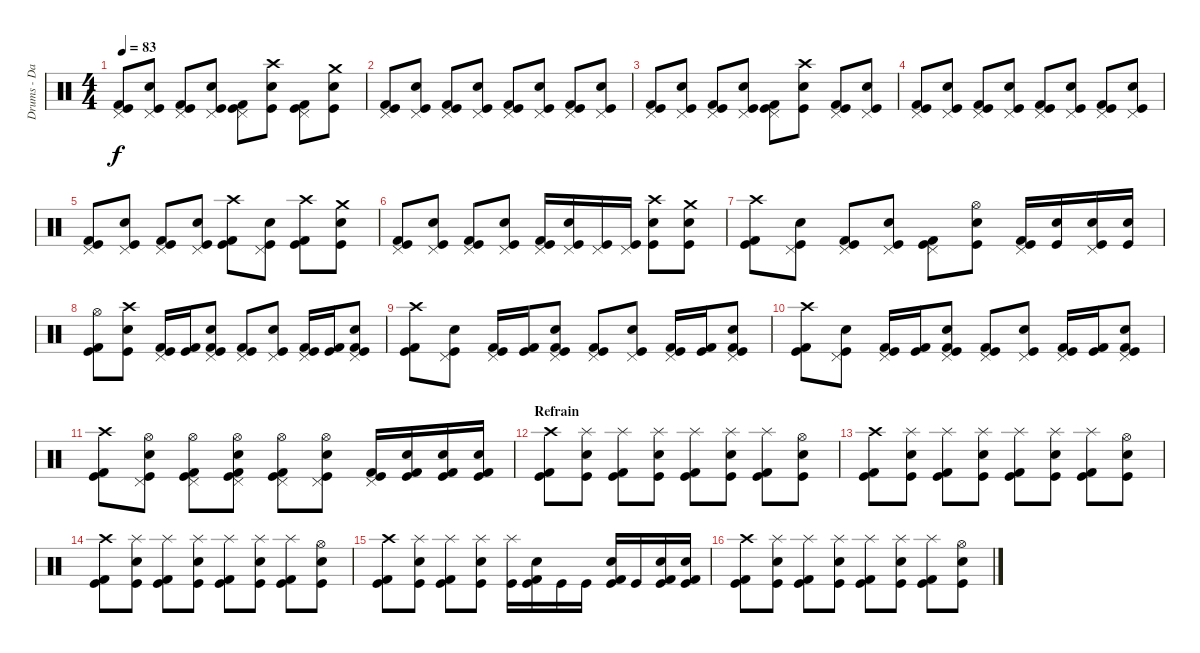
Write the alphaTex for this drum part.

\track ("Drums - Daniel Zimmermann" "Drums - Da") {instrument percussion}
\staff {score}
\articulation defaults
\ts (4 4)
\tempo 83
\clef neutral
\ks c
("Kick (hit)" "Kick (hit) 2" "Pedal Hi-Hat (hit)").8{dy f} ("Kick (hit)" "Electric Snare (hit)" "Pedal Hi-Hat (hit)").8 ("Kick (hit)" "Kick (hit) 2" "Pedal Hi-Hat (hit)").8 ("Kick (hit)" "Electric Snare (hit)" "Pedal Hi-Hat (hit)").8 ("Kick (hit)" "Kick (hit) 2" "Pedal Hi-Hat (hit)").8 ("Kick (hit)" "Electric Snare (hit)" "Crash high (hit)").8 ("Kick (hit)" "Kick (hit) 2" "Pedal Hi-Hat (hit)").8 ("Kick (hit)" "Electric Snare (hit)" "Crash medium (hit)").8 |
("Kick (hit)" "Kick (hit) 2" "Pedal Hi-Hat (hit)").8 ("Kick (hit)" "Electric Snare (hit)" "Pedal Hi-Hat (hit)").8 ("Kick (hit)" "Kick (hit) 2" "Pedal Hi-Hat (hit)").8 ("Kick (hit)" "Electric Snare (hit)" "Pedal Hi-Hat (hit)").8 ("Kick (hit)" "Kick (hit) 2" "Pedal Hi-Hat (hit)").8 ("Kick (hit)" "Electric Snare (hit)" "Pedal Hi-Hat (hit)").8 ("Kick (hit)" "Kick (hit) 2" "Pedal Hi-Hat (hit)").8 ("Kick (hit)" "Electric Snare (hit)" "Pedal Hi-Hat (hit)").8 |
("Kick (hit)" "Kick (hit) 2" "Pedal Hi-Hat (hit)").8 ("Kick (hit)" "Electric Snare (hit)" "Pedal Hi-Hat (hit)").8 ("Kick (hit)" "Kick (hit) 2" "Pedal Hi-Hat (hit)").8 ("Kick (hit)" "Electric Snare (hit)" "Pedal Hi-Hat (hit)").8 ("Kick (hit)" "Kick (hit) 2" "Pedal Hi-Hat (hit)").8 ("Kick (hit)" "Electric Snare (hit)" "Crash high (hit)").8 ("Kick (hit)" "Kick (hit) 2" "Pedal Hi-Hat (hit)").8 ("Kick (hit)" "Electric Snare (hit)" "Pedal Hi-Hat (hit)").8 |
("Kick (hit)" "Kick (hit) 2" "Pedal Hi-Hat (hit)").8 ("Kick (hit)" "Electric Snare (hit)" "Pedal Hi-Hat (hit)").8 ("Kick (hit)" "Kick (hit) 2" "Pedal Hi-Hat (hit)").8 ("Kick (hit)" "Electric Snare (hit)" "Pedal Hi-Hat (hit)").8 ("Kick (hit)" "Kick (hit) 2" "Pedal Hi-Hat (hit)").8 ("Kick (hit)" "Electric Snare (hit)" "Pedal Hi-Hat (hit)").8 ("Kick (hit)" "Kick (hit) 2" "Pedal Hi-Hat (hit)").8 ("Kick (hit)" "Electric Snare (hit)" "Pedal Hi-Hat (hit)").8 |
("Kick (hit)" "Kick (hit) 2" "Pedal Hi-Hat (hit)").8 ("Kick (hit)" "Electric Snare (hit)" "Pedal Hi-Hat (hit)").8 ("Kick (hit)" "Kick (hit) 2" "Pedal Hi-Hat (hit)").8 ("Kick (hit)" "Electric Snare (hit)" "Pedal Hi-Hat (hit)").8 ("Kick (hit)" "Kick (hit) 2" "Crash high (hit)").8 ("Kick (hit)" "Electric Snare (hit)" "Pedal Hi-Hat (hit)").8 ("Kick (hit)" "Kick (hit) 2" "Crash high (hit)").8 ("Kick (hit)" "Electric Snare (hit)" "Crash medium (hit)").8 |
("Kick (hit)" "Kick (hit) 2" "Pedal Hi-Hat (hit)").8 ("Kick (hit)" "Electric Snare (hit)" "Pedal Hi-Hat (hit)").8 ("Kick (hit)" "Kick (hit) 2" "Pedal Hi-Hat (hit)").8 ("Kick (hit)" "Electric Snare (hit)" "Pedal Hi-Hat (hit)").8 ("Kick (hit)" "Kick (hit) 2" "Pedal Hi-Hat (hit)").16 ("Kick (hit)" "Electric Snare (hit)" "Pedal Hi-Hat (hit)").16 ("Kick (hit)" "Pedal Hi-Hat (hit)").16 ("Kick (hit)" "Pedal Hi-Hat (hit)").16 ("Kick (hit)" "Electric Snare (hit)" "Crash high (hit)").8 ("Kick (hit)" "Electric Snare (hit)" "Crash medium (hit)").8 |
("Kick (hit)" "Kick (hit) 2" "Crash high (hit)").8 ("Kick (hit)" "Electric Snare (hit)" "Pedal Hi-Hat (hit)").8 ("Kick (hit)" "Kick (hit) 2" "Pedal Hi-Hat (hit)").8 ("Kick (hit)" "Electric Snare (hit)" "Pedal Hi-Hat (hit)").8 ("Kick (hit)" "Kick (hit) 2" "Pedal Hi-Hat (hit)").8 ("Kick (hit)" "Electric Snare (hit)" "Hi-Hat (open)").8 ("Kick (hit)" "Kick (hit) 2" "Pedal Hi-Hat (hit)").16 ("Kick (hit)" "Electric Snare (hit)").16 ("Kick (hit)" "Electric Snare (hit)" "Pedal Hi-Hat (hit)").16 ("Kick (hit)" "Electric Snare (hit)").16 |
("Kick (hit)" "Kick (hit) 2" "Hi-Hat (open)").8 ("Kick (hit)" "Electric Snare (hit)" "Crash high (hit)").8 ("Kick (hit)" "Kick (hit) 2" "Pedal Hi-Hat (hit)").16 ("Kick (hit)" "Kick (hit) 2").16 ("Kick (hit)" "Kick (hit) 2" "Electric Snare (hit)" "Pedal Hi-Hat (hit)").8 ("Kick (hit)" "Kick (hit) 2" "Pedal Hi-Hat (hit)").8 ("Kick (hit)" "Electric Snare (hit)" "Pedal Hi-Hat (hit)").8 ("Kick (hit)" "Kick (hit) 2" "Pedal Hi-Hat (hit)").16 ("Kick (hit)" "Kick (hit) 2").16 ("Kick (hit)" "Kick (hit) 2" "Electric Snare (hit)" "Pedal Hi-Hat (hit)").8 |
("Kick (hit)" "Kick (hit) 2" "Crash high (hit)").8 ("Kick (hit)" "Electric Snare (hit)" "Pedal Hi-Hat (hit)").8 ("Kick (hit)" "Kick (hit) 2" "Pedal Hi-Hat (hit)").16 ("Kick (hit)" "Kick (hit) 2").16 ("Kick (hit)" "Kick (hit) 2" "Electric Snare (hit)" "Pedal Hi-Hat (hit)").8 ("Kick (hit)" "Kick (hit) 2" "Pedal Hi-Hat (hit)").8 ("Kick (hit)" "Electric Snare (hit)" "Pedal Hi-Hat (hit)").8 ("Kick (hit)" "Kick (hit) 2" "Pedal Hi-Hat (hit)").16 ("Kick (hit)" "Kick (hit) 2").16 ("Kick (hit)" "Kick (hit) 2" "Electric Snare (hit)" "Pedal Hi-Hat (hit)").8 |
("Kick (hit)" "Kick (hit) 2" "Crash high (hit)").8 ("Kick (hit)" "Electric Snare (hit)" "Pedal Hi-Hat (hit)").8 ("Kick (hit)" "Kick (hit) 2" "Pedal Hi-Hat (hit)").16 ("Kick (hit)" "Kick (hit) 2").16 ("Kick (hit)" "Kick (hit) 2" "Electric Snare (hit)" "Pedal Hi-Hat (hit)").8 ("Kick (hit)" "Kick (hit) 2" "Pedal Hi-Hat (hit)").8 ("Kick (hit)" "Electric Snare (hit)" "Pedal Hi-Hat (hit)").8 ("Kick (hit)" "Kick (hit) 2" "Pedal Hi-Hat (hit)").16 ("Kick (hit)" "Kick (hit) 2").16 ("Kick (hit)" "Kick (hit) 2" "Electric Snare (hit)" "Pedal Hi-Hat (hit)").8 |
("Kick (hit)" "Kick (hit) 2" "Crash high (hit)").8 ("Kick (hit)" "Electric Snare (hit)" "Pedal Hi-Hat (hit)" "Hi-Hat (open)").8 ("Kick (hit)" "Kick (hit) 2" "Pedal Hi-Hat (hit)" "Hi-Hat (open)").8 ("Kick (hit)" "Kick (hit) 2" "Electric Snare (hit)" "Pedal Hi-Hat (hit)" "Hi-Hat (open)").8 ("Kick (hit)" "Kick (hit) 2" "Pedal Hi-Hat (hit)" "Hi-Hat (open)").8 ("Kick (hit)" "Electric Snare (hit)" "Pedal Hi-Hat (hit)" "Hi-Hat (open)").8 ("Kick (hit)" "Kick (hit) 2" "Pedal Hi-Hat (hit)").16 ("Kick (hit)" "Kick (hit) 2" "Electric Snare (hit)").16 ("Kick (hit)" "Kick (hit) 2" "Electric Snare (hit)").16 ("Kick (hit)" "Kick (hit) 2" "Electric Snare (hit)").16 |
\section ("" "Refrain")
("Kick (hit)" "Kick (hit) 2" "Crash high (hit)").8 ("Kick (hit)" "Electric Snare (hit)" "Splash (hit)").8 ("Kick (hit)" "Kick (hit) 2" "Splash (hit)").8 ("Kick (hit)" "Electric Snare (hit)" "Splash (hit)").8 ("Kick (hit)" "Kick (hit) 2" "Splash (hit)").8 ("Kick (hit)" "Electric Snare (hit)" "Splash (hit)").8 ("Kick (hit)" "Kick (hit) 2" "Splash (hit)").8 ("Kick (hit)" "Electric Snare (hit)" "Hi-Hat (open)").8 |
("Kick (hit)" "Kick (hit) 2" "Crash high (hit)").8 ("Kick (hit)" "Electric Snare (hit)" "Splash (hit)").8 ("Kick (hit)" "Kick (hit) 2" "Splash (hit)").8 ("Kick (hit)" "Electric Snare (hit)" "Splash (hit)").8 ("Kick (hit)" "Kick (hit) 2" "Splash (hit)").8 ("Kick (hit)" "Electric Snare (hit)" "Splash (hit)").8 ("Kick (hit)" "Kick (hit) 2" "Splash (hit)").8 ("Kick (hit)" "Electric Snare (hit)" "Hi-Hat (open)").8 |
("Kick (hit)" "Kick (hit) 2" "Crash high (hit)").8 ("Kick (hit)" "Electric Snare (hit)" "Splash (hit)").8 ("Kick (hit)" "Kick (hit) 2" "Splash (hit)").8 ("Kick (hit)" "Electric Snare (hit)" "Splash (hit)").8 ("Kick (hit)" "Kick (hit) 2" "Splash (hit)").8 ("Kick (hit)" "Electric Snare (hit)" "Splash (hit)").8 ("Kick (hit)" "Kick (hit) 2" "Splash (hit)").8 ("Kick (hit)" "Electric Snare (hit)" "Hi-Hat (open)").8 |
("Kick (hit)" "Kick (hit) 2" "Crash high (hit)").8 ("Kick (hit)" "Electric Snare (hit)" "Splash (hit)").8 ("Kick (hit)" "Kick (hit) 2" "Splash (hit)").8 ("Kick (hit)" "Electric Snare (hit)" "Splash (hit)").8 ("Kick (hit)" "Splash (hit)").16 ("Kick (hit)" "Kick (hit) 2" "Electric Snare (hit)").16 "Kick (hit)".16 "Kick (hit)".16 ("Kick (hit)" "Kick (hit) 2" "Electric Snare (hit)").16 "Kick (hit)".16 ("Kick (hit)" "Kick (hit) 2" "Electric Snare (hit)").16 ("Kick (hit)" "Kick (hit) 2" "Electric Snare (hit)").16 |
("Kick (hit)" "Kick (hit) 2" "Crash high (hit)").8 ("Kick (hit)" "Electric Snare (hit)" "Splash (hit)").8 ("Kick (hit)" "Kick (hit) 2" "Splash (hit)").8 ("Kick (hit)" "Electric Snare (hit)" "Splash (hit)").8 ("Kick (hit)" "Kick (hit) 2" "Splash (hit)").8 ("Kick (hit)" "Electric Snare (hit)" "Splash (hit)").8 ("Kick (hit)" "Kick (hit) 2" "Splash (hit)").8 ("Kick (hit)" "Electric Snare (hit)" "Hi-Hat (open)").8
